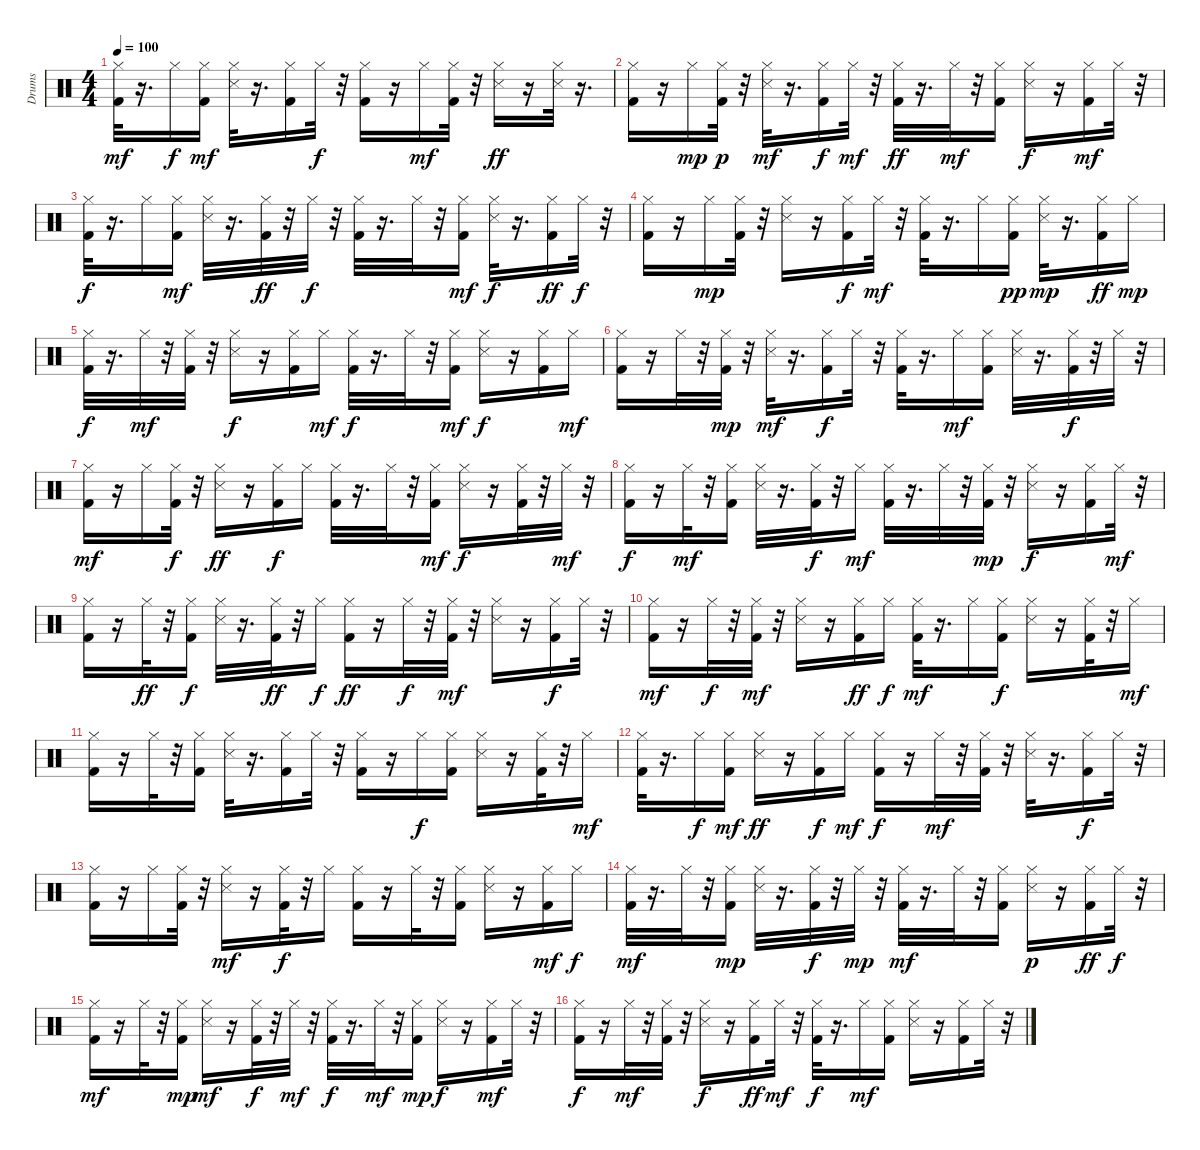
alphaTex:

\track ("Drums" "Drums") {instrument percussion}
\staff {score}
\articulation defaults
\ts (4 4)
\tempo 100
\clef neutral
\ks c
("Hi-Hat (closed)" "Kick (hit) 2").32{dy mf} r.16{d} "Hi-Hat (closed)".16{dy f} ("Kick (hit) 2" "Hi-Hat (closed)").16{dy mf} ("Hi-Hat (closed)" "Snare (side stick) 3").32 r.16{d} ("Kick (hit) 2" "Hi-Hat (closed)").16 "Hi-Hat (closed)".32{dy f} r.32 ("Hi-Hat (closed)" "Kick (hit) 2").16 r.16 "Hi-Hat (closed)".16{dy mf} ("Hi-Hat (closed)" "Kick (hit) 2").32 r.32 ("Hi-Hat (closed)" "Snare (side stick) 3").16{dy ff} r.16 ("Hi-Hat (closed)" "Snare (side stick) 3").32 r.16{d} |
("Hi-Hat (closed)" "Kick (hit) 2").16 r.16 "Hi-Hat (closed)".16{dy mp} ("Kick (hit) 2" "Hi-Hat (closed)").32{dy p} r.32 ("Hi-Hat (closed)" "Snare (side stick) 3").32{dy mf} r.16{d} ("Kick (hit) 2" "Hi-Hat (closed)").16{dy f} "Hi-Hat (closed)".32{dy mf} r.32 ("Hi-Hat (closed)" "Kick (hit) 2").32{dy ff} r.16{d} "Hi-Hat (closed)".32{dy mf} r.32 ("Hi-Hat (closed)" "Kick (hit) 2").16 ("Hi-Hat (closed)" "Snare (side stick) 3").16{dy f} r.16 ("Kick (hit) 2" "Hi-Hat (closed)").16{dy mf} "Hi-Hat (closed)".32 r.32 |
("Hi-Hat (closed)" "Kick (hit) 2").32{dy f} r.16{d} "Hi-Hat (closed)".16 ("Kick (hit) 2" "Hi-Hat (closed)").16{dy mf} ("Hi-Hat (closed)" "Snare (side stick) 3").32 r.16{d} ("Hi-Hat (closed)" "Kick (hit) 2").32{dy ff} r.32 "Hi-Hat (closed)".32{dy f} r.32 ("Kick (hit) 2" "Hi-Hat (closed)").32 r.16{d} "Hi-Hat (closed)".32 r.32 ("Hi-Hat (closed)" "Kick (hit) 2").16{dy mf} ("Hi-Hat (closed)" "Snare (side stick) 3").32{dy f} r.16{d} ("Hi-Hat (closed)" "Kick (hit) 2").16{dy ff} "Hi-Hat (closed)".32{dy f} r.32 |
("Kick (hit) 2" "Hi-Hat (closed)").16 r.16 "Hi-Hat (closed)".16{dy mp} ("Kick (hit) 2" "Hi-Hat (closed)").32 r.32 ("Hi-Hat (closed)" "Snare (side stick) 3").16 r.16 ("Kick (hit) 2" "Hi-Hat (closed)").16{dy f} "Hi-Hat (closed)".32{dy mf} r.32 ("Kick (hit) 2" "Hi-Hat (closed)").32 r.16{d} "Hi-Hat (closed)".16 ("Kick (hit) 2" "Hi-Hat (closed)").16{dy pp} ("Hi-Hat (closed)" "Snare (side stick) 3").32{dy mp} r.16{d} ("Kick (hit) 2" "Hi-Hat (closed)").16{dy ff} "Hi-Hat (closed)".16{dy mp} |
("Kick (hit) 2" "Hi-Hat (closed)").32{dy f} r.16{d} "Hi-Hat (closed)".32{dy mf} r.32 ("Hi-Hat (closed)" "Kick (hit) 2").32 r.32 ("Hi-Hat (closed)" "Snare (side stick) 3").16{dy f} r.16 ("Kick (hit) 2" "Hi-Hat (closed)").16 "Hi-Hat (closed)".16{dy mf} ("Kick (hit) 2" "Hi-Hat (closed)").32{dy f} r.16{d} "Hi-Hat (closed)".32 r.32 ("Kick (hit) 2" "Hi-Hat (closed)").16{dy mf} ("Hi-Hat (closed)" "Snare (side stick) 3").16{dy f} r.16 ("Hi-Hat (closed)" "Kick (hit) 2").16 "Hi-Hat (closed)".16{dy mf} |
("Hi-Hat (closed)" "Kick (hit) 2").16 r.16 "Hi-Hat (closed)".32 r.32 ("Kick (hit) 2" "Hi-Hat (closed)").32{dy mp} r.32 ("Hi-Hat (closed)" "Snare (side stick) 3").32{dy mf} r.16{d} ("Hi-Hat (closed)" "Kick (hit) 2").16{dy f} "Hi-Hat (closed)".32 r.32 ("Hi-Hat (closed)" "Kick (hit) 2").32 r.16{d} "Hi-Hat (closed)".16{dy mf} ("Kick (hit) 2" "Hi-Hat (closed)").16 ("Hi-Hat (closed)" "Snare (side stick) 3").32 r.16{d} ("Hi-Hat (closed)" "Kick (hit) 2").32{dy f} r.32 "Hi-Hat (closed)".32 r.32 |
("Hi-Hat (closed)" "Kick (hit) 2").16{dy mf} r.16 "Hi-Hat (closed)".16 ("Kick (hit) 2" "Hi-Hat (closed)").32{dy f} r.32 ("Hi-Hat (closed)" "Snare (side stick) 3").16{dy ff} r.16 ("Kick (hit) 2" "Hi-Hat (closed)").16{dy f} "Hi-Hat (closed)".16 ("Hi-Hat (closed)" "Kick (hit) 2").32 r.16{d} "Hi-Hat (closed)".32 r.32 ("Kick (hit) 2" "Hi-Hat (closed)").16{dy mf} ("Snare (side stick) 3" "Hi-Hat (closed)").16{dy f} r.16 ("Kick (hit) 2" "Hi-Hat (closed)").32 r.32 "Hi-Hat (closed)".32{dy mf} r.32 |
("Hi-Hat (closed)" "Kick (hit) 2").16{dy f} r.16 "Hi-Hat (closed)".32{dy mf} r.32 ("Hi-Hat (closed)" "Kick (hit) 2").16 ("Hi-Hat (closed)" "Snare (side stick) 3").32 r.16{d} ("Kick (hit) 2" "Hi-Hat (closed)").32{dy f} r.32 "Hi-Hat (closed)".16{dy mf} ("Kick (hit) 2" "Hi-Hat (closed)").32 r.16{d} "Hi-Hat (closed)".32 r.32 ("Kick (hit) 2" "Hi-Hat (closed)").32{dy mp} r.32 ("Hi-Hat (closed)" "Snare (side stick) 3").16{dy f} r.16 ("Kick (hit) 2" "Hi-Hat (closed)").16 "Hi-Hat (closed)".32{dy mf} r.32 |
("Kick (hit) 2" "Hi-Hat (closed)").16 r.16 "Hi-Hat (closed)".32{dy ff} r.32 ("Hi-Hat (closed)" "Kick (hit) 2").16{dy f} ("Hi-Hat (closed)" "Snare (side stick) 3").32 r.16{d} ("Hi-Hat (closed)" "Kick (hit) 2").32{dy ff} r.32 "Hi-Hat (closed)".16{dy f} ("Kick (hit) 2" "Hi-Hat (closed)").16{dy ff} r.16 "Hi-Hat (closed)".32{dy f} r.32 ("Kick (hit) 2" "Hi-Hat (closed)").32{dy mf} r.32 ("Hi-Hat (closed)" "Snare (side stick) 3").16 r.16 ("Kick (hit) 2" "Hi-Hat (closed)").16{dy f} "Hi-Hat (closed)".32 r.32 |
("Kick (hit) 2" "Hi-Hat (closed)").16{dy mf} r.16 "Hi-Hat (closed)".32{dy f} r.32 ("Hi-Hat (closed)" "Kick (hit) 2").32{dy mf} r.32 ("Hi-Hat (closed)" "Snare (side stick) 3").16 r.16 ("Hi-Hat (closed)" "Kick (hit) 2").16{dy ff} "Hi-Hat (closed)".16{dy f} ("Hi-Hat (closed)" "Kick (hit) 2").32{dy mf} r.16{d} "Hi-Hat (closed)".16 ("Kick (hit) 2" "Hi-Hat (closed)").16{dy f} ("Hi-Hat (closed)" "Snare (side stick) 3").16 r.16 ("Kick (hit) 2" "Hi-Hat (closed)").32 r.32 "Hi-Hat (closed)".16{dy mf} |
("Hi-Hat (closed)" "Kick (hit) 2").16 r.16 "Hi-Hat (closed)".32 r.32 ("Kick (hit) 2" "Hi-Hat (closed)").16 ("Hi-Hat (closed)" "Snare (side stick) 3").32 r.16{d} ("Kick (hit) 2" "Hi-Hat (closed)").16 "Hi-Hat (closed)".32 r.32 ("Kick (hit) 2" "Hi-Hat (closed)").16 r.16 "Hi-Hat (closed)".16{dy f} ("Hi-Hat (closed)" "Kick (hit) 2").16 ("Hi-Hat (closed)" "Snare (side stick) 3").16 r.16 ("Kick (hit) 2" "Hi-Hat (closed)").32 r.32 "Hi-Hat (closed)".16{dy mf} |
("Kick (hit) 2" "Hi-Hat (closed)").32 r.16{d} "Hi-Hat (closed)".16{dy f} ("Kick (hit) 2" "Hi-Hat (closed)").16{dy mf} ("Hi-Hat (closed)" "Snare (side stick) 3").16{dy ff} r.16 ("Kick (hit) 2" "Hi-Hat (closed)").16{dy f} "Hi-Hat (closed)".16{dy mf} ("Hi-Hat (closed)" "Kick (hit) 2").16{dy f} r.16 "Hi-Hat (closed)".32{dy mf} r.32 ("Kick (hit) 2" "Hi-Hat (closed)").32 r.32 ("Hi-Hat (closed)" "Snare (side stick) 3").32 r.16{d} ("Kick (hit) 2" "Hi-Hat (closed)").16{dy f} "Hi-Hat (closed)".32 r.32 |
("Hi-Hat (closed)" "Kick (hit) 2").16 r.16 "Hi-Hat (closed)".16 ("Kick (hit) 2" "Hi-Hat (closed)").32 r.32 ("Hi-Hat (closed)" "Snare (side stick) 3").16{dy mf} r.16 ("Kick (hit) 2" "Hi-Hat (closed)").32{dy f} r.32 "Hi-Hat (closed)".16 ("Kick (hit) 2" "Hi-Hat (closed)").16 r.16 "Hi-Hat (closed)".32 r.32 ("Hi-Hat (closed)" "Kick (hit) 2").16 ("Hi-Hat (closed)" "Snare (side stick) 3").16 r.16 ("Hi-Hat (closed)" "Kick (hit) 2").16{dy mf} "Hi-Hat (closed)".16{dy f} |
("Kick (hit) 2" "Hi-Hat (closed)").32{dy mf} r.16{d} "Hi-Hat (closed)".32 r.32 ("Hi-Hat (closed)" "Kick (hit) 2").16{dy mp} ("Hi-Hat (closed)" "Snare (side stick) 3").32 r.16{d} ("Hi-Hat (closed)" "Kick (hit) 2").32{dy f} r.32 "Hi-Hat (closed)".32{dy mp} r.32 ("Kick (hit) 2" "Hi-Hat (closed)").32{dy mf} r.16{d} "Hi-Hat (closed)".32 r.32 ("Kick (hit) 2" "Hi-Hat (closed)").16 ("Hi-Hat (closed)" "Snare (side stick) 3").16{dy p} r.16 ("Hi-Hat (closed)" "Kick (hit) 2").16{dy ff} "Hi-Hat (closed)".32{dy f} r.32 |
("Hi-Hat (closed)" "Kick (hit) 2").16{dy mf} r.16 "Hi-Hat (closed)".32 r.32 ("Kick (hit) 2" "Hi-Hat (closed)").16{dy mp} ("Hi-Hat (closed)" "Snare (side stick) 3").16{dy mf} r.16 ("Kick (hit) 2" "Hi-Hat (closed)").32{dy f} r.32 "Hi-Hat (closed)".32{dy mf} r.32 ("Kick (hit) 2" "Hi-Hat (closed)").32{dy f} r.16{d} "Hi-Hat (closed)".32{dy mf} r.32 ("Kick (hit) 2" "Hi-Hat (closed)").16{dy mp} ("Hi-Hat (closed)" "Snare (side stick) 3").16{dy f} r.16 ("Hi-Hat (closed)" "Kick (hit) 2").16{dy mf} "Hi-Hat (closed)".32 r.32 |
("Hi-Hat (closed)" "Kick (hit) 2").16{dy f} r.16 "Hi-Hat (closed)".32{dy mf} r.32 ("Kick (hit) 2" "Hi-Hat (closed)").32 r.32 ("Hi-Hat (closed)" "Snare (side stick) 3").16{dy f} r.16 ("Kick (hit) 2" "Hi-Hat (closed)").16{dy ff} "Hi-Hat (closed)".32{dy mf} r.32 ("Kick (hit) 2" "Hi-Hat (closed)").32{dy f} r.16{d} "Hi-Hat (closed)".16{dy mf} ("Kick (hit) 2" "Hi-Hat (closed)").16 ("Snare (side stick) 3" "Hi-Hat (closed)").16 r.16 ("Hi-Hat (closed)" "Kick (hit) 2").16 "Hi-Hat (closed)".32 r.32
